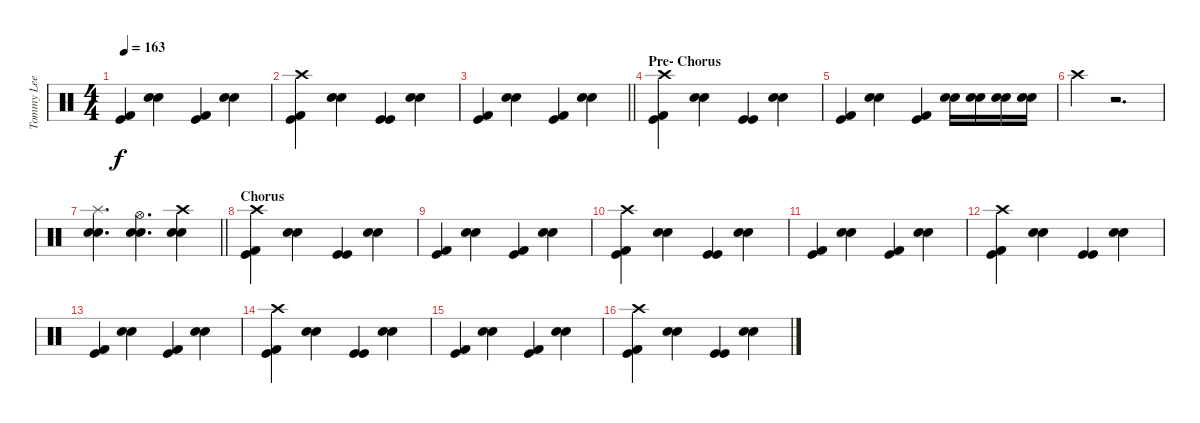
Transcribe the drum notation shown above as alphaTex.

\track ("Tommy Lee" "Tommy Lee") {instrument percussion}
\staff {score}
\articulation defaults
\ts (4 4)
\tempo 163
\clef neutral
\ks c
("Kick (hit) 2" "Kick (hit)").4{dy f} ("Electric Snare (hit)" "Snare (hit) 2").4 ("Kick (hit) 2" "Kick (hit)").4 ("Electric Snare (hit)" "Snare (hit) 2").4 |
("Crash high (hit)" "Kick (hit) 2" "Kick (hit)").4 ("Electric Snare (hit)" "Snare (hit) 2").4 ("Kick (hit)" "Kick (hit)").4 ("Electric Snare (hit)" "Snare (hit) 2").4 |
\barLineRight lightlight
("Kick (hit) 2" "Kick (hit)").4 ("Electric Snare (hit)" "Snare (hit) 2").4 ("Kick (hit) 2" "Kick (hit)").4 ("Electric Snare (hit)" "Snare (hit) 2").4 |
\section ("" "Pre- Chorus")
("Crash high (hit)" "Kick (hit) 2" "Kick (hit)").4 ("Electric Snare (hit)" "Snare (hit) 2").4 ("Kick (hit)" "Kick (hit)").4 ("Electric Snare (hit)" "Snare (hit) 2").4 |
("Kick (hit) 2" "Kick (hit)").4 ("Electric Snare (hit)" "Snare (hit) 2").4 ("Kick (hit) 2" "Kick (hit)").4 ("Electric Snare (hit)" "Snare (hit) 2").16 ("Electric Snare (hit)" "Snare (hit) 2").16 ("Electric Snare (hit)" "Snare (hit) 2").16 ("Electric Snare (hit)" "Snare (hit) 2").16 |
"Crash high (hit)".4 r.2{d} |
\barLineRight lightlight
("Splash (hit)" "Electric Snare (hit)" "Snare (hit) 2").4{d} ("Hi-Hat (open)" "Electric Snare (hit)" "Snare (hit) 2").4{d} ("Crash high (hit)" "Electric Snare (hit)" "Snare (hit) 2").4 |
\section ("" "Chorus")
("Crash high (hit)" "Kick (hit) 2" "Kick (hit)").4 ("Electric Snare (hit)" "Snare (hit) 2").4 ("Kick (hit)" "Kick (hit)").4 ("Electric Snare (hit)" "Snare (hit) 2").4 |
("Kick (hit) 2" "Kick (hit)").4 ("Electric Snare (hit)" "Snare (hit) 2").4 ("Kick (hit) 2" "Kick (hit)").4 ("Electric Snare (hit)" "Snare (hit) 2").4 |
("Crash high (hit)" "Kick (hit) 2" "Kick (hit)").4 ("Electric Snare (hit)" "Snare (hit) 2").4 ("Kick (hit)" "Kick (hit)").4 ("Electric Snare (hit)" "Snare (hit) 2").4 |
("Kick (hit) 2" "Kick (hit)").4 ("Electric Snare (hit)" "Snare (hit) 2").4 ("Kick (hit) 2" "Kick (hit)").4 ("Electric Snare (hit)" "Snare (hit) 2").4 |
("Crash high (hit)" "Kick (hit) 2" "Kick (hit)").4 ("Electric Snare (hit)" "Snare (hit) 2").4 ("Kick (hit)" "Kick (hit)").4 ("Electric Snare (hit)" "Snare (hit) 2").4 |
("Kick (hit) 2" "Kick (hit)").4 ("Electric Snare (hit)" "Snare (hit) 2").4 ("Kick (hit) 2" "Kick (hit)").4 ("Electric Snare (hit)" "Snare (hit) 2").4 |
("Crash high (hit)" "Kick (hit) 2" "Kick (hit)").4 ("Electric Snare (hit)" "Snare (hit) 2").4 ("Kick (hit)" "Kick (hit)").4 ("Electric Snare (hit)" "Snare (hit) 2").4 |
("Kick (hit) 2" "Kick (hit)").4 ("Electric Snare (hit)" "Snare (hit) 2").4 ("Kick (hit) 2" "Kick (hit)").4 ("Electric Snare (hit)" "Snare (hit) 2").4 |
("Crash high (hit)" "Kick (hit) 2" "Kick (hit)").4 ("Electric Snare (hit)" "Snare (hit) 2").4 ("Kick (hit)" "Kick (hit)").4 ("Electric Snare (hit)" "Snare (hit) 2").4
